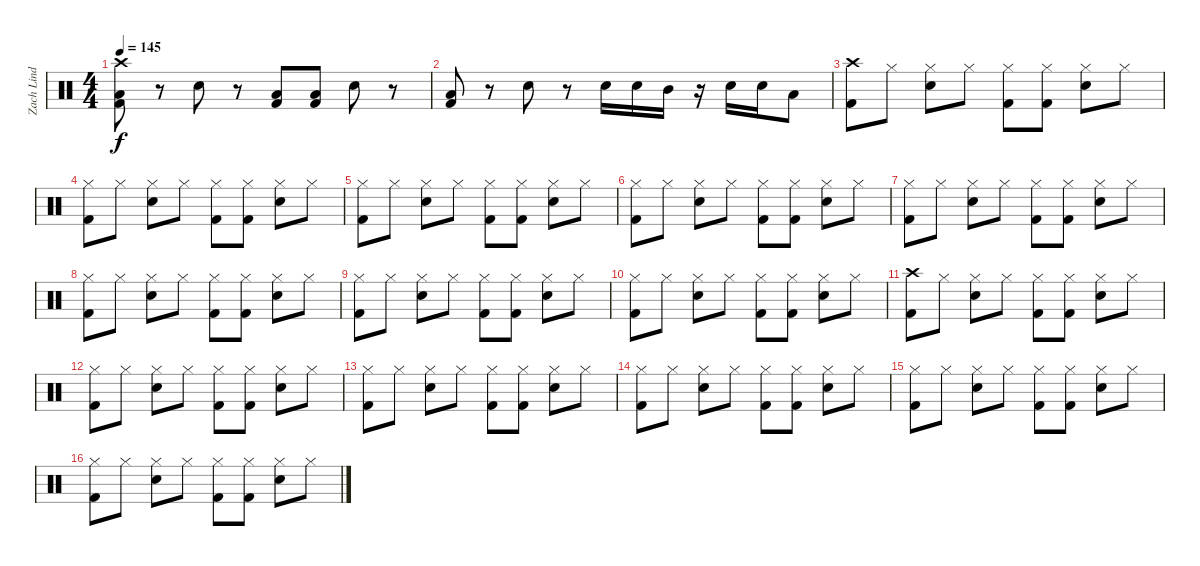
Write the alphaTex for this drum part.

\track ("Zach Lind" "Zach Lind") {instrument percussion}
\staff {score}
\articulation defaults
\ts (4 4)
\tempo 145
\clef neutral
\ks c
("Crash high (hit)" "Low Floor Tom (hit)" "Kick (hit) 2").8{dy f} r.8 "Snare (hit) 2".8 r.8 ("Low Floor Tom (hit)" "Kick (hit) 2").8 ("Low Floor Tom (hit)" "Kick (hit) 2").8 "Snare (hit) 2".8 r.8 |
("Low Floor Tom (hit)" "Kick (hit) 2").8 r.8 "Snare (hit) 2".8 r.8 "Snare (hit) 2".16 "Snare (hit) 2".16 "Mid Tom (hit)".16 r.16 "Snare (hit) 2".16 "Snare (hit) 2".16 "Low Tom (hit)".8 |
("Crash high (hit)" "Kick (hit) 2").8 "Hi-Hat (closed)".8 ("Hi-Hat (closed)" "Snare (hit) 2").8 "Hi-Hat (closed)".8 ("Hi-Hat (closed)" "Kick (hit) 2").8 ("Hi-Hat (closed)" "Kick (hit) 2").8 ("Hi-Hat (closed)" "Snare (hit) 2").8 "Hi-Hat (closed)".8 |
("Hi-Hat (closed)" "Kick (hit) 2").8 "Hi-Hat (closed)".8 ("Hi-Hat (closed)" "Snare (hit) 2").8 "Hi-Hat (closed)".8 ("Hi-Hat (closed)" "Kick (hit) 2").8 ("Hi-Hat (closed)" "Kick (hit) 2").8 ("Hi-Hat (closed)" "Snare (hit) 2").8 "Hi-Hat (closed)".8 |
("Hi-Hat (closed)" "Kick (hit) 2").8 "Hi-Hat (closed)".8 ("Hi-Hat (closed)" "Snare (hit) 2").8 "Hi-Hat (closed)".8 ("Hi-Hat (closed)" "Kick (hit) 2").8 ("Hi-Hat (closed)" "Kick (hit) 2").8 ("Hi-Hat (closed)" "Snare (hit) 2").8 "Hi-Hat (closed)".8 |
("Hi-Hat (closed)" "Kick (hit) 2").8 "Hi-Hat (closed)".8 ("Hi-Hat (closed)" "Snare (hit) 2").8 "Hi-Hat (closed)".8 ("Hi-Hat (closed)" "Kick (hit) 2").8 ("Hi-Hat (closed)" "Kick (hit) 2").8 ("Hi-Hat (closed)" "Snare (hit) 2").8 "Hi-Hat (closed)".8 |
("Hi-Hat (closed)" "Kick (hit) 2").8 "Hi-Hat (closed)".8 ("Hi-Hat (closed)" "Snare (hit) 2").8 "Hi-Hat (closed)".8 ("Hi-Hat (closed)" "Kick (hit) 2").8 ("Hi-Hat (closed)" "Kick (hit) 2").8 ("Hi-Hat (closed)" "Snare (hit) 2").8 "Hi-Hat (closed)".8 |
("Hi-Hat (closed)" "Kick (hit) 2").8 "Hi-Hat (closed)".8 ("Hi-Hat (closed)" "Snare (hit) 2").8 "Hi-Hat (closed)".8 ("Hi-Hat (closed)" "Kick (hit) 2").8 ("Hi-Hat (closed)" "Kick (hit) 2").8 ("Hi-Hat (closed)" "Snare (hit) 2").8 "Hi-Hat (closed)".8 |
("Hi-Hat (closed)" "Kick (hit) 2").8 "Hi-Hat (closed)".8 ("Hi-Hat (closed)" "Snare (hit) 2").8 "Hi-Hat (closed)".8 ("Hi-Hat (closed)" "Kick (hit) 2").8 ("Hi-Hat (closed)" "Kick (hit) 2").8 ("Hi-Hat (closed)" "Snare (hit) 2").8 "Hi-Hat (closed)".8 |
("Hi-Hat (closed)" "Kick (hit) 2").8 "Hi-Hat (closed)".8 ("Hi-Hat (closed)" "Snare (hit) 2").8 "Hi-Hat (closed)".8 ("Hi-Hat (closed)" "Kick (hit) 2").8 ("Hi-Hat (closed)" "Kick (hit) 2").8 ("Hi-Hat (closed)" "Snare (hit) 2").8 "Hi-Hat (closed)".8 |
("Crash high (hit)" "Kick (hit) 2").8 "Hi-Hat (closed)".8 ("Hi-Hat (closed)" "Snare (hit) 2").8 "Hi-Hat (closed)".8 ("Hi-Hat (closed)" "Kick (hit) 2").8 ("Hi-Hat (closed)" "Kick (hit) 2").8 ("Hi-Hat (closed)" "Snare (hit) 2").8 "Hi-Hat (closed)".8 |
("Hi-Hat (closed)" "Kick (hit) 2").8 "Hi-Hat (closed)".8 ("Hi-Hat (closed)" "Snare (hit) 2").8 "Hi-Hat (closed)".8 ("Hi-Hat (closed)" "Kick (hit) 2").8 ("Hi-Hat (closed)" "Kick (hit) 2").8 ("Hi-Hat (closed)" "Snare (hit) 2").8 "Hi-Hat (closed)".8 |
("Hi-Hat (closed)" "Kick (hit) 2").8 "Hi-Hat (closed)".8 ("Hi-Hat (closed)" "Snare (hit) 2").8 "Hi-Hat (closed)".8 ("Hi-Hat (closed)" "Kick (hit) 2").8 ("Hi-Hat (closed)" "Kick (hit) 2").8 ("Hi-Hat (closed)" "Snare (hit) 2").8 "Hi-Hat (closed)".8 |
("Hi-Hat (closed)" "Kick (hit) 2").8 "Hi-Hat (closed)".8 ("Hi-Hat (closed)" "Snare (hit) 2").8 "Hi-Hat (closed)".8 ("Hi-Hat (closed)" "Kick (hit) 2").8 ("Hi-Hat (closed)" "Kick (hit) 2").8 ("Hi-Hat (closed)" "Snare (hit) 2").8 "Hi-Hat (closed)".8 |
("Hi-Hat (closed)" "Kick (hit) 2").8 "Hi-Hat (closed)".8 ("Hi-Hat (closed)" "Snare (hit) 2").8 "Hi-Hat (closed)".8 ("Hi-Hat (closed)" "Kick (hit) 2").8 ("Hi-Hat (closed)" "Kick (hit) 2").8 ("Hi-Hat (closed)" "Snare (hit) 2").8 "Hi-Hat (closed)".8 |
("Hi-Hat (closed)" "Kick (hit) 2").8 "Hi-Hat (closed)".8 ("Hi-Hat (closed)" "Snare (hit) 2").8 "Hi-Hat (closed)".8 ("Hi-Hat (closed)" "Kick (hit) 2").8 ("Hi-Hat (closed)" "Kick (hit) 2").8 ("Hi-Hat (closed)" "Snare (hit) 2").8 "Hi-Hat (closed)".8
